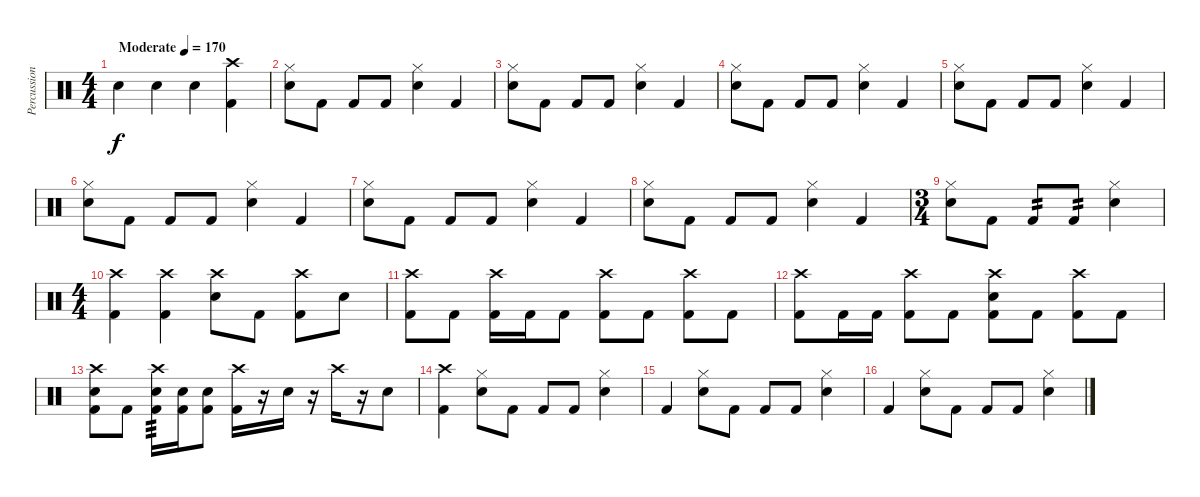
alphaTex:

\track ("Percussion" "Percussion") {instrument percussion}
\staff {score}
\articulation defaults
\ts (4 4)
\tempo (170 "Moderate")
\clef neutral
\ks c "Hand Clap (hit)".4{dy f} "Hand Clap (hit)".4 "Hand Clap (hit)".4
("Crash high (hit)" "Kick (hit) 2").4 |
("Hi-Hat (closed)" "Snare (hit) 2").8 "Kick (hit) 2".8 "Kick (hit) 2".8 "Kick (hit) 2".8 ("Hi-Hat (closed)" "Snare (hit) 2").4 "Kick (hit) 2".4 |
("Hi-Hat (closed)" "Snare (hit) 2").8 "Kick (hit) 2".8 "Kick (hit) 2".8 "Kick (hit) 2".8 ("Hi-Hat (closed)" "Snare (hit) 2").4 "Kick (hit) 2".4 |
("Hi-Hat (closed)" "Snare (hit) 2").8 "Kick (hit) 2".8 "Kick (hit) 2".8 "Kick (hit) 2".8 ("Hi-Hat (closed)" "Snare (hit) 2").4 "Kick (hit) 2".4 |
("Hi-Hat (closed)" "Snare (hit) 2").8 "Kick (hit) 2".8 "Kick (hit) 2".8 "Kick (hit) 2".8 ("Hi-Hat (closed)" "Snare (hit) 2").4 "Kick (hit) 2".4 |
("Hi-Hat (closed)" "Snare (hit) 2").8 "Kick (hit) 2".8 "Kick (hit) 2".8 "Kick (hit) 2".8 ("Hi-Hat (closed)" "Snare (hit) 2").4 "Kick (hit) 2".4 |
("Hi-Hat (closed)" "Snare (hit) 2").8 "Kick (hit) 2".8 "Kick (hit) 2".8 "Kick (hit) 2".8 ("Hi-Hat (closed)" "Snare (hit) 2").4 "Kick (hit) 2".4 |
("Hi-Hat (closed)" "Snare (hit) 2").8 "Kick (hit) 2".8 "Kick (hit) 2".8 "Kick (hit) 2".8 ("Hi-Hat (closed)" "Snare (hit) 2").4 "Kick (hit) 2".4 |
\ts (3 4)
("Hi-Hat (closed)" "Snare (hit) 2").8 "Kick (hit) 2".8 "Kick (hit) 2".8{tp 2} "Kick (hit) 2".8{tp 2} ("Hi-Hat (closed)" "Snare (hit) 2").4 |
\ts (4 4)
("Crash high (hit)" "Kick (hit) 2").4 ("Crash high (hit)" "Kick (hit) 2").4 ("Crash high (hit)" "Snare (hit) 2").8 "Kick (hit) 2".8 ("Crash high (hit)" "Kick (hit) 2").8 "Snare (hit) 2".8 |
("Crash high (hit)" "Kick (hit) 2").8 "Kick (hit) 2".8 ("Crash high (hit)" "Kick (hit) 2").16 "Kick (hit) 2".16 "Kick (hit) 2".8 ("Crash high (hit)" "Kick (hit) 2").8 "Kick (hit) 2".8 ("Crash high (hit)" "Kick (hit) 2").8 "Kick (hit) 2".8 |
("Crash high (hit)" "Kick (hit) 2").8 "Kick (hit) 2".16 "Kick (hit) 2".16 ("Crash high (hit)" "Kick (hit) 2").8 "Kick (hit) 2".8 ("Crash high (hit)" "Snare (hit) 2" "Kick (hit) 2").8 "Kick (hit) 2".8 ("Crash high (hit)" "Kick (hit) 2").8 "Kick (hit) 2".8 |
("Crash high (hit)" "Snare (hit) 2" "Kick (hit) 2").8 "Kick (hit) 2".8 ("Crash high (hit)" "Snare (hit) 2" "Kick (hit) 2").16{tp 3} ("Snare (hit) 2" "Kick (hit) 2").16 ("Snare (hit) 2" "Kick (hit) 2").8 ("Crash high (hit)" "Kick (hit) 2").16 r.16 "Snare (hit) 2".16 r.16 "Crash high (hit)".16 r.16 "Snare (hit) 2".8 |
("Crash high (hit)" "Kick (hit) 2").4 ("Hi-Hat (closed)" "Snare (hit) 2").8 "Kick (hit) 2".8 "Kick (hit) 2".8 "Kick (hit) 2".8 ("Hi-Hat (closed)" "Snare (hit) 2").4 |
"Kick (hit) 2".4 ("Hi-Hat (closed)" "Snare (hit) 2").8 "Kick (hit) 2".8 "Kick (hit) 2".8 "Kick (hit) 2".8 ("Hi-Hat (closed)" "Snare (hit) 2").4 |
"Kick (hit) 2".4 ("Hi-Hat (closed)" "Snare (hit) 2").8 "Kick (hit) 2".8 "Kick (hit) 2".8 "Kick (hit) 2".8 ("Hi-Hat (closed)" "Snare (hit) 2").4
